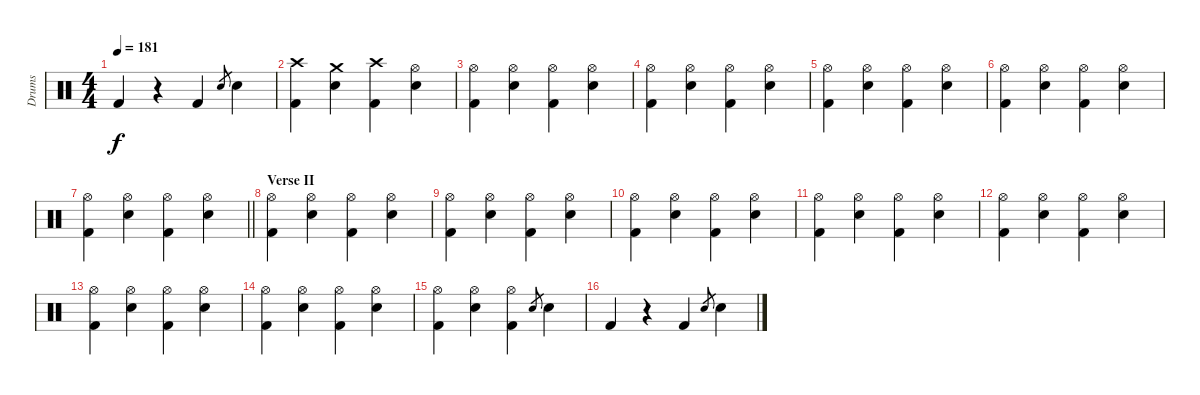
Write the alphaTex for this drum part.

\track ("Drums" "Drums") {instrument percussion}
\staff {score}
\articulation defaults
\ts (4 4)
\tempo 181
\clef neutral
\ks c "Kick (hit) 2".4{dy f}
r.4 "Kick (hit) 2".4 "Snare (hit) 2".8{gr} "Snare (hit) 2".4 |
("Crash high (hit)" "Kick (hit) 2").4 ("Crash medium (hit)" "Snare (hit) 2").4 ("Crash high (hit)" "Kick (hit) 2").4 ("Hi-Hat (open)" "Snare (hit) 2").4 |
("Hi-Hat (open)" "Kick (hit) 2").4 ("Hi-Hat (open)" "Snare (hit) 2").4 ("Hi-Hat (open)" "Kick (hit) 2").4 ("Hi-Hat (open)" "Snare (hit) 2").4 |
("Hi-Hat (open)" "Kick (hit) 2").4 ("Hi-Hat (open)" "Snare (hit) 2").4 ("Hi-Hat (open)" "Kick (hit) 2").4 ("Hi-Hat (open)" "Snare (hit) 2").4 |
("Hi-Hat (open)" "Kick (hit) 2").4 ("Hi-Hat (open)" "Snare (hit) 2").4 ("Hi-Hat (open)" "Kick (hit) 2").4 ("Hi-Hat (open)" "Snare (hit) 2").4 |
("Hi-Hat (open)" "Kick (hit) 2").4 ("Hi-Hat (open)" "Snare (hit) 2").4 ("Hi-Hat (open)" "Kick (hit) 2").4 ("Hi-Hat (open)" "Snare (hit) 2").4 |
\barLineRight lightlight
("Hi-Hat (open)" "Kick (hit) 2").4 ("Hi-Hat (open)" "Snare (hit) 2").4 ("Hi-Hat (open)" "Kick (hit) 2").4 ("Hi-Hat (open)" "Snare (hit) 2").4 |
\section ("" "Verse II")
("Hi-Hat (open)" "Kick (hit) 2").4 ("Hi-Hat (open)" "Snare (hit) 2").4 ("Hi-Hat (open)" "Kick (hit) 2").4 ("Hi-Hat (open)" "Snare (hit) 2").4 |
("Hi-Hat (open)" "Kick (hit) 2").4 ("Hi-Hat (open)" "Snare (hit) 2").4 ("Hi-Hat (open)" "Kick (hit) 2").4 ("Hi-Hat (open)" "Snare (hit) 2").4 |
("Hi-Hat (open)" "Kick (hit) 2").4 ("Hi-Hat (open)" "Snare (hit) 2").4 ("Hi-Hat (open)" "Kick (hit) 2").4 ("Hi-Hat (open)" "Snare (hit) 2").4 |
("Hi-Hat (open)" "Kick (hit) 2").4 ("Hi-Hat (open)" "Snare (hit) 2").4 ("Hi-Hat (open)" "Kick (hit) 2").4 ("Hi-Hat (open)" "Snare (hit) 2").4 |
("Hi-Hat (open)" "Kick (hit) 2").4 ("Hi-Hat (open)" "Snare (hit) 2").4 ("Hi-Hat (open)" "Kick (hit) 2").4 ("Hi-Hat (open)" "Snare (hit) 2").4 |
("Hi-Hat (open)" "Kick (hit) 2").4 ("Hi-Hat (open)" "Snare (hit) 2").4 ("Hi-Hat (open)" "Kick (hit) 2").4 ("Hi-Hat (open)" "Snare (hit) 2").4 |
("Hi-Hat (open)" "Kick (hit) 2").4 ("Hi-Hat (open)" "Snare (hit) 2").4 ("Hi-Hat (open)" "Kick (hit) 2").4 ("Hi-Hat (open)" "Snare (hit) 2").4 |
("Hi-Hat (open)" "Kick (hit) 2").4 ("Hi-Hat (open)" "Snare (hit) 2").4 ("Hi-Hat (open)" "Kick (hit) 2").4 "Snare (hit) 2".8{gr} "Snare (hit) 2".4 |
"Kick (hit) 2".4 r.4 "Kick (hit) 2".4 "Snare (hit) 2".8{gr} "Snare (hit) 2".4
